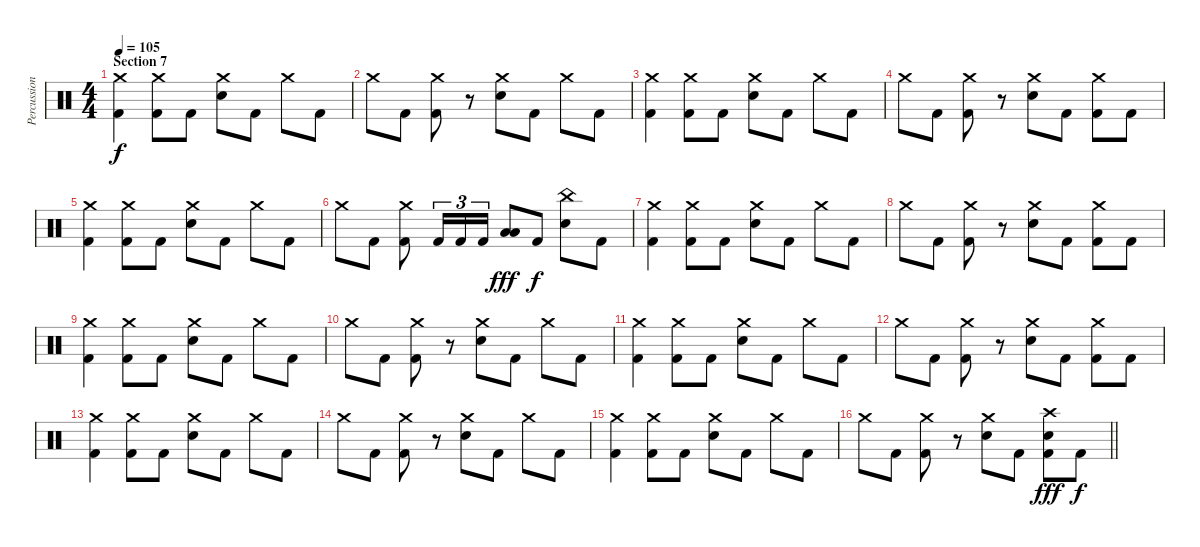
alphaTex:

\track ("Percussion" "Percussion") {instrument percussion}
\staff {score}
\articulation defaults
\ts (4 4)
\section ("" "Section 7")
\tempo 105
\clef neutral
\ks c
("Crash medium (hit)" "Kick (hit) 2").4{dy f} ("Crash medium (hit)" "Kick (hit) 2").8 "Kick (hit) 2".8 ("Crash medium (hit)" "Electric Snare (hit)").8 "Kick (hit) 2".8 "Crash medium (hit)".8 "Kick (hit) 2".8 |
"Crash medium (hit)".8 "Kick (hit) 2".8 ("Crash medium (hit)" "Kick (hit) 2").8 r.8 ("Crash medium (hit)" "Electric Snare (hit)").8 "Kick (hit) 2".8 "Crash medium (hit)".8 "Kick (hit) 2".8 |
("Crash medium (hit)" "Kick (hit) 2").4 ("Crash medium (hit)" "Kick (hit) 2").8 "Kick (hit) 2".8 ("Crash medium (hit)" "Electric Snare (hit)").8 "Kick (hit) 2".8 "Crash medium (hit)".8 "Kick (hit) 2".8 |
"Crash medium (hit)".8 "Kick (hit) 2".8 ("Crash medium (hit)" "Kick (hit) 2").8 r.8 ("Crash medium (hit)" "Electric Snare (hit)").8 "Kick (hit) 2".8 ("Crash medium (hit)" "Kick (hit) 2").8 "Kick (hit) 2".8 |
("Crash medium (hit)" "Kick (hit) 2").4 ("Crash medium (hit)" "Kick (hit) 2").8 "Kick (hit) 2".8 ("Crash medium (hit)" "Electric Snare (hit)").8 "Kick (hit) 2".8 "Crash medium (hit)".8 "Kick (hit) 2".8 |
"Crash medium (hit)".8 "Kick (hit) 2".8 ("Crash medium (hit)" "Kick (hit) 2").8 "Kick (hit) 2".16{tu (3 2)} "Kick (hit) 2".16{tu (3 2)} "Kick (hit) 2".16{tu (3 2)} ("Low Tom (hit)" "Low Floor Tom (hit)").8{dy fff} "Kick (hit) 2".8{dy f} ("China (hit)" "Electric Snare (hit)").8 "Kick (hit) 2".8 |
("Crash medium (hit)" "Kick (hit) 2").4 ("Crash medium (hit)" "Kick (hit) 2").8 "Kick (hit) 2".8 ("Crash medium (hit)" "Electric Snare (hit)").8 "Kick (hit) 2".8 "Crash medium (hit)".8 "Kick (hit) 2".8 |
"Crash medium (hit)".8 "Kick (hit) 2".8 ("Crash medium (hit)" "Kick (hit) 2").8 r.8 ("Crash medium (hit)" "Electric Snare (hit)").8 "Kick (hit) 2".8 ("Crash medium (hit)" "Kick (hit) 2").8 "Kick (hit) 2".8 |
("Crash medium (hit)" "Kick (hit) 2").4 ("Crash medium (hit)" "Kick (hit) 2").8 "Kick (hit) 2".8 ("Crash medium (hit)" "Electric Snare (hit)").8 "Kick (hit) 2".8 "Crash medium (hit)".8 "Kick (hit) 2".8 |
"Crash medium (hit)".8 "Kick (hit) 2".8 ("Crash medium (hit)" "Kick (hit) 2").8 r.8 ("Crash medium (hit)" "Electric Snare (hit)").8 "Kick (hit) 2".8 "Crash medium (hit)".8 "Kick (hit) 2".8 |
("Crash medium (hit)" "Kick (hit) 2").4 ("Crash medium (hit)" "Kick (hit) 2").8 "Kick (hit) 2".8 ("Crash medium (hit)" "Electric Snare (hit)").8 "Kick (hit) 2".8 "Crash medium (hit)".8 "Kick (hit) 2".8 |
"Crash medium (hit)".8 "Kick (hit) 2".8 ("Crash medium (hit)" "Kick (hit) 2").8 r.8 ("Crash medium (hit)" "Electric Snare (hit)").8 "Kick (hit) 2".8 ("Crash medium (hit)" "Kick (hit) 2").8 "Kick (hit) 2".8 |
("Crash medium (hit)" "Kick (hit) 2").4 ("Crash medium (hit)" "Kick (hit) 2").8 "Kick (hit) 2".8 ("Crash medium (hit)" "Electric Snare (hit)").8 "Kick (hit) 2".8 "Crash medium (hit)".8 "Kick (hit) 2".8 |
"Crash medium (hit)".8 "Kick (hit) 2".8 ("Crash medium (hit)" "Kick (hit) 2").8 r.8 ("Crash medium (hit)" "Electric Snare (hit)").8 "Kick (hit) 2".8 "Crash medium (hit)".8 "Kick (hit) 2".8 |
("Crash medium (hit)" "Kick (hit) 2").4 ("Crash medium (hit)" "Kick (hit) 2").8 "Kick (hit) 2".8 ("Crash medium (hit)" "Electric Snare (hit)").8 "Kick (hit) 2".8 "Crash medium (hit)".8 "Kick (hit) 2".8 |
\barLineRight lightlight "Crash medium (hit)".8 "Kick (hit) 2".8
("Crash medium (hit)" "Kick (hit) 2").8 r.8 ("Crash medium (hit)" "Electric Snare (hit)").8 "Kick (hit) 2".8 ("Crash high (hit)" "Electric Snare (hit)" "Kick (hit) 2").8{dy fff} "Kick (hit) 2".8{dy f}
